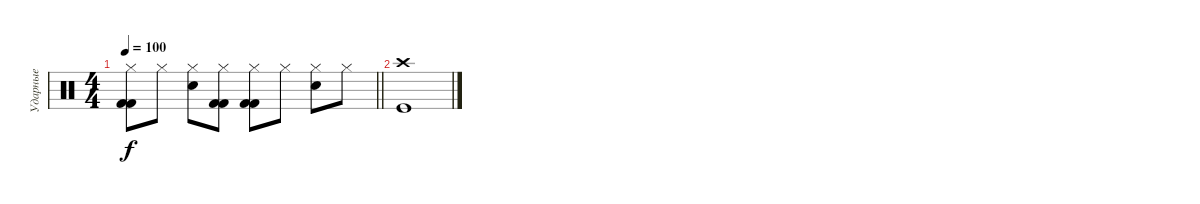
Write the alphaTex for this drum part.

\track ("Ударные" "Ударные") {instrument percussion}
\staff {score}
\articulation defaults
\ts (4 4)
\tempo 100
\clef neutral
\barLineRight lightlight
\ks c
("Hi-Hat (closed)" "Kick (hit) 2" "Kick (hit) 2").8{dy f} "Hi-Hat (closed)".8 ("Hi-Hat (closed)" "Snare (hit) 2").8 ("Hi-Hat (closed)" "Kick (hit) 2" "Kick (hit) 2").8 ("Hi-Hat (closed)" "Kick (hit) 2" "Kick (hit) 2").8 "Hi-Hat (closed)".8 ("Hi-Hat (closed)" "Snare (hit) 2").8 "Hi-Hat (closed)".8 |
("Crash high (hit)" "Kick (hit)").1
